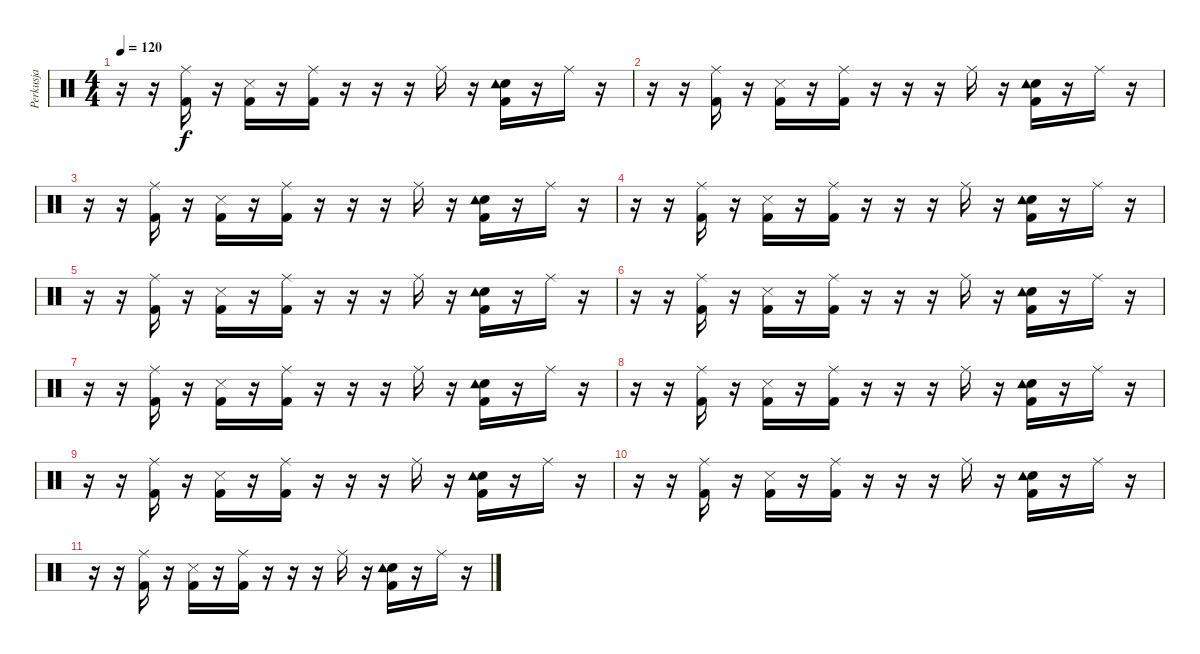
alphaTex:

\track ("Perkusja" "Perkusja") {instrument percussion}
\staff {score}
\articulation defaults
\ts (4 4)
\tempo 120
\clef neutral
\ks c
r.16{dy f} r.16 ("Kick (hit) 2" "Ride (middle)").16 r.16 ("Snare (side stick) 3" "Kick (hit) 2").16 r.16 ("Kick (hit) 2" "Ride (middle)").16 r.16 r.16 r.16 "Ride (middle)".16 r.16 ("Electric Snare (hit)" "Tambourine (hit)" "Kick (hit) 2").16 r.16 "Ride (middle)".16 r.16 |
r.16 r.16 ("Kick (hit) 2" "Ride (middle)").16 r.16 ("Snare (side stick) 3" "Kick (hit) 2").16 r.16 ("Kick (hit) 2" "Ride (middle)").16 r.16 r.16 r.16 "Ride (middle)".16 r.16 ("Electric Snare (hit)" "Tambourine (hit)" "Kick (hit) 2").16 r.16 "Ride (middle)".16 r.16 |
r.16 r.16 ("Kick (hit) 2" "Ride (middle)").16 r.16 ("Snare (side stick) 3" "Kick (hit) 2").16 r.16 ("Kick (hit) 2" "Ride (middle)").16 r.16 r.16 r.16 "Ride (middle)".16 r.16 ("Electric Snare (hit)" "Tambourine (hit)" "Kick (hit) 2").16 r.16 "Ride (middle)".16 r.16 |
r.16{volume 0} r.16 ("Kick (hit) 2" "Ride (middle)").16 r.16 ("Snare (side stick) 3" "Kick (hit) 2").16 r.16 ("Kick (hit) 2" "Ride (middle)").16 r.16 r.16 r.16 "Ride (middle)".16 r.16 ("Electric Snare (hit)" "Tambourine (hit)" "Kick (hit) 2").16 r.16 "Ride (middle)".16 r.16 |
r.16 r.16 ("Kick (hit) 2" "Ride (middle)").16 r.16 ("Snare (side stick) 3" "Kick (hit) 2").16 r.16 ("Kick (hit) 2" "Ride (middle)").16 r.16 r.16 r.16 "Ride (middle)".16 r.16 ("Electric Snare (hit)" "Tambourine (hit)" "Kick (hit) 2").16 r.16 "Ride (middle)".16 r.16 |
r.16 r.16 ("Kick (hit) 2" "Ride (middle)").16 r.16 ("Snare (side stick) 3" "Kick (hit) 2").16 r.16 ("Kick (hit) 2" "Ride (middle)").16 r.16 r.16 r.16 "Ride (middle)".16 r.16 ("Electric Snare (hit)" "Tambourine (hit)" "Kick (hit) 2").16 r.16 "Ride (middle)".16 r.16 |
r.16 r.16 ("Kick (hit) 2" "Ride (middle)").16 r.16 ("Snare (side stick) 3" "Kick (hit) 2").16 r.16 ("Kick (hit) 2" "Ride (middle)").16 r.16 r.16 r.16 "Ride (middle)".16 r.16 ("Electric Snare (hit)" "Tambourine (hit)" "Kick (hit) 2").16 r.16 "Ride (middle)".16 r.16 |
r.16 r.16 ("Kick (hit) 2" "Ride (middle)").16 r.16 ("Snare (side stick) 3" "Kick (hit) 2").16 r.16 ("Kick (hit) 2" "Ride (middle)").16 r.16 r.16 r.16 "Ride (middle)".16 r.16 ("Electric Snare (hit)" "Tambourine (hit)" "Kick (hit) 2").16 r.16 "Ride (middle)".16 r.16 |
r.16 r.16 ("Kick (hit) 2" "Ride (middle)").16 r.16 ("Snare (side stick) 3" "Kick (hit) 2").16 r.16 ("Kick (hit) 2" "Ride (middle)").16 r.16 r.16 r.16 "Ride (middle)".16 r.16 ("Electric Snare (hit)" "Tambourine (hit)" "Kick (hit) 2").16 r.16 "Ride (middle)".16 r.16 |
r.16 r.16 ("Kick (hit) 2" "Ride (middle)").16 r.16 ("Snare (side stick) 3" "Kick (hit) 2").16 r.16 ("Kick (hit) 2" "Ride (middle)").16 r.16 r.16 r.16 "Ride (middle)".16 r.16 ("Electric Snare (hit)" "Tambourine (hit)" "Kick (hit) 2").16 r.16 "Ride (middle)".16 r.16 |
r.16 r.16 ("Kick (hit) 2" "Ride (middle)").16 r.16 ("Snare (side stick) 3" "Kick (hit) 2").16 r.16 ("Kick (hit) 2" "Ride (middle)").16 r.16 r.16 r.16 "Ride (middle)".16 r.16 ("Electric Snare (hit)" "Tambourine (hit)" "Kick (hit) 2").16 r.16 "Ride (middle)".16 r.16
